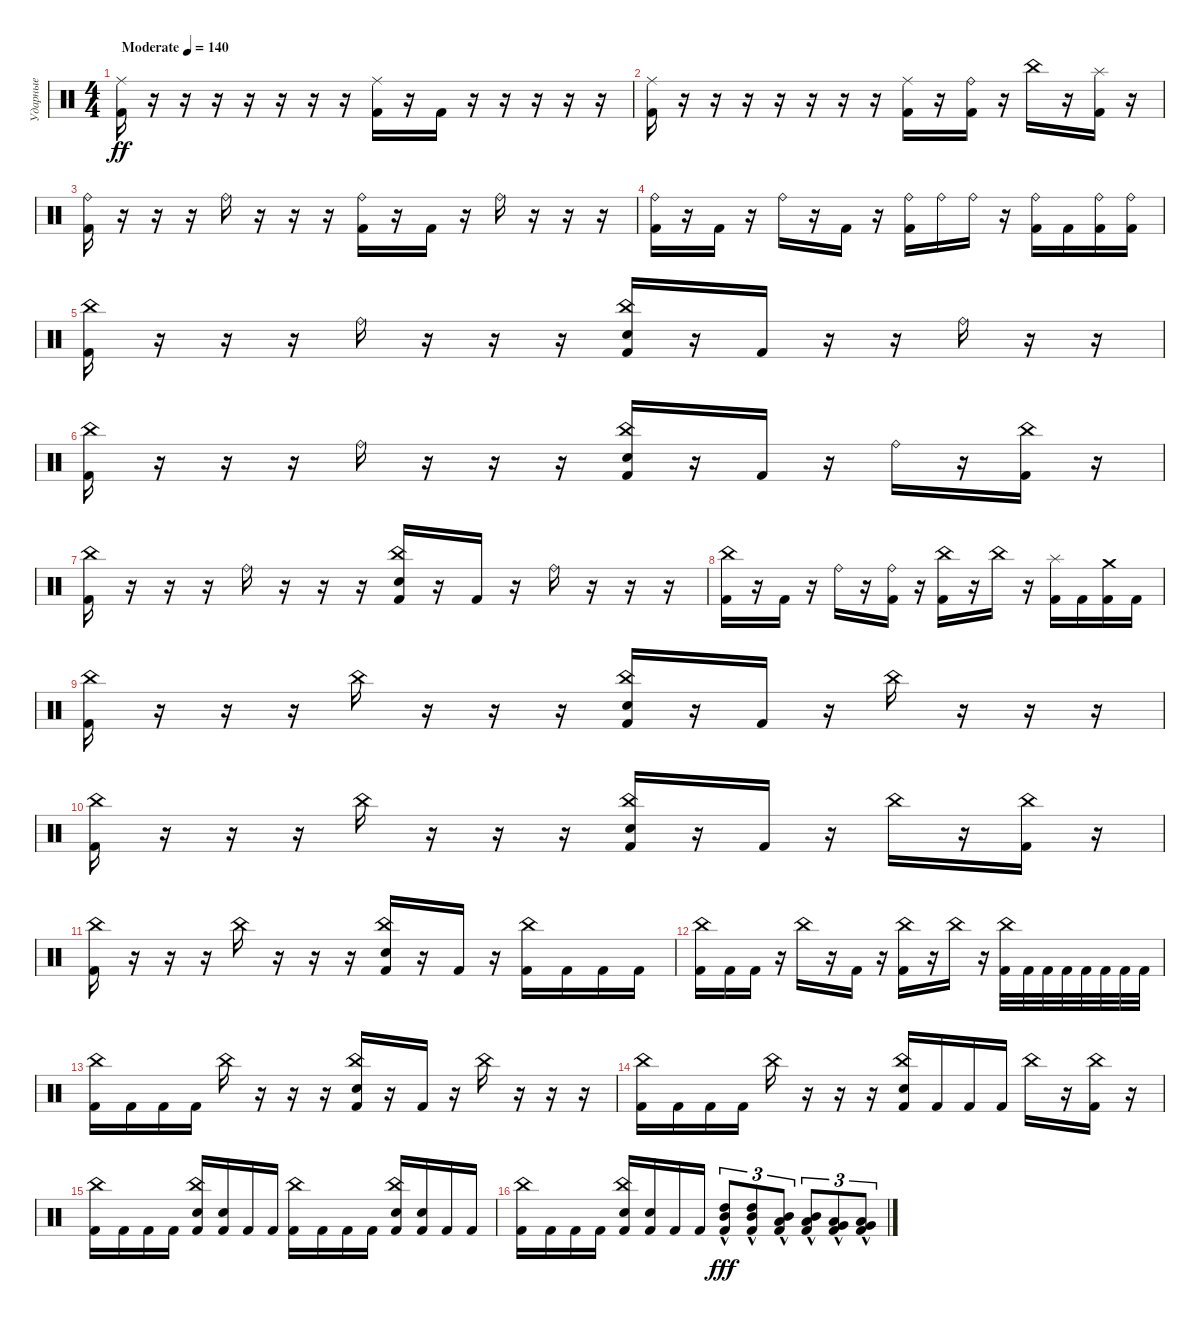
\track ("Ударные" "Ударные") {instrument percussion}
\staff {score}
\articulation defaults
\ts (4 4)
\tempo (140 "Moderate")
\clef neutral
\ks c
("Kick (hit) 2" "Ride (middle)").16{dy ff} r.16 r.16 r.16 r.16 r.16 r.16 r.16 ("Kick (hit) 2" "Ride (middle)").16 r.16 "Kick (hit) 2".16 r.16 r.16 r.16 r.16 r.16 |
("Kick (hit) 2" "Ride (middle)").16 r.16 r.16 r.16 r.16 r.16 r.16 r.16 ("Kick (hit) 2" "Ride (middle)").16 r.16 ("Kick (hit) 2" "Ride (bell)").16 r.16 "China (hit)".16 r.16 ("Kick (hit) 2" "Splash (hit)").16 r.16 |
("Kick (hit) 2" "Ride (bell)").16 r.16 r.16 r.16 "Ride (bell)".16 r.16 r.16 r.16 ("Kick (hit) 2" "Ride (bell)").16 r.16 "Kick (hit) 2".16 r.16 "Ride (bell)".16 r.16 r.16 r.16 |
("Kick (hit) 2" "Ride (bell)").16 r.16 "Kick (hit) 2".16 r.16 "Ride (bell)".16 r.16 "Kick (hit) 2".16 r.16 ("Kick (hit) 2" "Ride (bell)").16 "Ride (bell)".16 "Ride (bell)".16 r.16 ("Kick (hit) 2" "Ride (bell)").16 "Kick (hit) 2".16 ("Kick (hit) 2" "Ride (bell)").16 ("Kick (hit) 2" "Ride (bell)").16 |
("Kick (hit) 2" "China (hit)").16 r.16 r.16 r.16 "Ride (bell)".16 r.16 r.16 r.16 ("Kick (hit) 2" "Snare (hit) 2" "China (hit)").16 r.16 "Kick (hit) 2".16 r.16 r.16 "Ride (bell)".16 r.16 r.16 |
("Kick (hit) 2" "China (hit)").16 r.16 r.16 r.16 "Ride (bell)".16 r.16 r.16 r.16 ("Kick (hit) 2" "China (hit)" "Snare (hit) 2").16 r.16 "Kick (hit) 2".16 r.16 "Ride (bell)".16 r.16 ("Kick (hit) 2" "China (hit)").16 r.16 |
("Kick (hit) 2" "China (hit)").16 r.16 r.16 r.16 "Ride (bell)".16 r.16 r.16 r.16 ("Kick (hit) 2" "China (hit)" "Snare (hit) 2").16 r.16 "Kick (hit) 2".16 r.16 "Ride (bell)".16 r.16 r.16 r.16 |
("Kick (hit) 2" "China (hit)").16 r.16 "Kick (hit) 2".16 r.16 "Ride (bell)".16 r.16 ("Kick (hit) 2" "Ride (bell)").16 r.16 ("Kick (hit) 2" "China (hit)").16 r.16 "China (hit)".16 r.16 ("Kick (hit) 2" "Splash (hit)").16 "Kick (hit) 2".16 ("Kick (hit) 2" "Crash medium (hit)").16 "Kick (hit) 2".16 |
("Kick (hit) 2" "China (hit)").16 r.16 r.16 r.16 "China (hit)".16 r.16 r.16 r.16 ("Kick (hit) 2" "Snare (hit) 2" "China (hit)").16 r.16 "Kick (hit) 2".16 r.16 "China (hit)".16 r.16 r.16 r.16 |
("Kick (hit) 2" "China (hit)").16 r.16 r.16 r.16 "China (hit)".16 r.16 r.16 r.16 ("Kick (hit) 2" "China (hit)" "Snare (hit) 2").16 r.16 "Kick (hit) 2".16 r.16 "China (hit)".16 r.16 ("Kick (hit) 2" "China (hit)").16 r.16 |
("Kick (hit) 2" "China (hit)").16 r.16 r.16 r.16 "China (hit)".16 r.16 r.16 r.16 ("Kick (hit) 2" "China (hit)" "Snare (hit) 2").16 r.16 "Kick (hit) 2".16 r.16 ("China (hit)" "Kick (hit) 2").16 "Kick (hit) 2".16 "Kick (hit) 2".16 "Kick (hit) 2".16 |
("Kick (hit) 2" "China (hit)").16 "Kick (hit) 2".16 "Kick (hit) 2".16 r.16 "China (hit)".16 r.16 "Kick (hit) 2".16 r.16 ("Kick (hit) 2" "China (hit)").16 r.16 "China (hit)".16 r.16 ("Kick (hit) 2" "China (hit)").32 "Kick (hit) 2".32 "Kick (hit) 2".32 "Kick (hit) 2".32 "Kick (hit) 2".32 "Kick (hit) 2".32 "Kick (hit) 2".32 "Kick (hit) 2".32 |
("Kick (hit) 2" "China (hit)").16 "Kick (hit) 2".16 "Kick (hit) 2".16 "Kick (hit) 2".16 "China (hit)".16 r.16 r.16 r.16 ("Kick (hit) 2" "Snare (hit) 2" "China (hit)").16 r.16 "Kick (hit) 2".16 r.16 "China (hit)".16 r.16 r.16 r.16 |
("Kick (hit) 2" "China (hit)").16 "Kick (hit) 2".16 "Kick (hit) 2".16 "Kick (hit) 2".16 "China (hit)".16 r.16 r.16 r.16 ("Kick (hit) 2" "China (hit)" "Snare (hit) 2").16 "Kick (hit) 2".16 "Kick (hit) 2".16 "Kick (hit) 2".16 "China (hit)".16 r.16 ("Kick (hit) 2" "China (hit)").16 r.16 |
("Kick (hit) 2" "China (hit)").16 "Kick (hit) 2".16 "Kick (hit) 2".16 "Kick (hit) 2".16 ("China (hit)" "Kick (hit) 2" "Snare (hit) 2").16 ("Kick (hit) 2" "Snare (hit) 2").16 "Kick (hit) 2".16 "Kick (hit) 2".16 ("Kick (hit) 2" "China (hit)").16 "Kick (hit) 2".16 "Kick (hit) 2".16 "Kick (hit) 2".16 ("China (hit)" "Kick (hit) 2" "Snare (hit) 2").16 ("Kick (hit) 2" "Snare (hit) 2").16 "Kick (hit) 2".16 "Kick (hit) 2".16 |
("Kick (hit) 2" "China (hit)").16 "Kick (hit) 2".16 "Kick (hit) 2".16 "Kick (hit) 2".16 ("China (hit)" "Kick (hit) 2" "Snare (hit) 2").16 ("Kick (hit) 2" "Snare (hit) 2").16 "Kick (hit) 2".16 "Kick (hit) 2".16 ("Kick (hit) 2" "High Tom (hit)"{hac} "Mid Tom (hit)"{hac}).8{tu (3 2) dy fff} ("Kick (hit) 2" "High Tom (hit)"{hac} "Mid Tom (hit)"{hac}).8{tu (3 2)} ("Kick (hit) 2" "Mid Tom (hit)"{hac} "Low Tom (hit)"{hac}).8{tu (3 2)} ("Kick (hit) 2" "Mid Tom (hit)"{hac} "Low Tom (hit)"{hac}).8{tu (3 2)} ("Kick (hit) 2" "Low Tom (hit)"{hac} "Very Low Tom (hit)"{hac}).8{tu (3 2)} ("Kick (hit) 2" "Low Tom (hit)"{hac} "Very Low Tom (hit)"{hac}).8{tu (3 2)}
